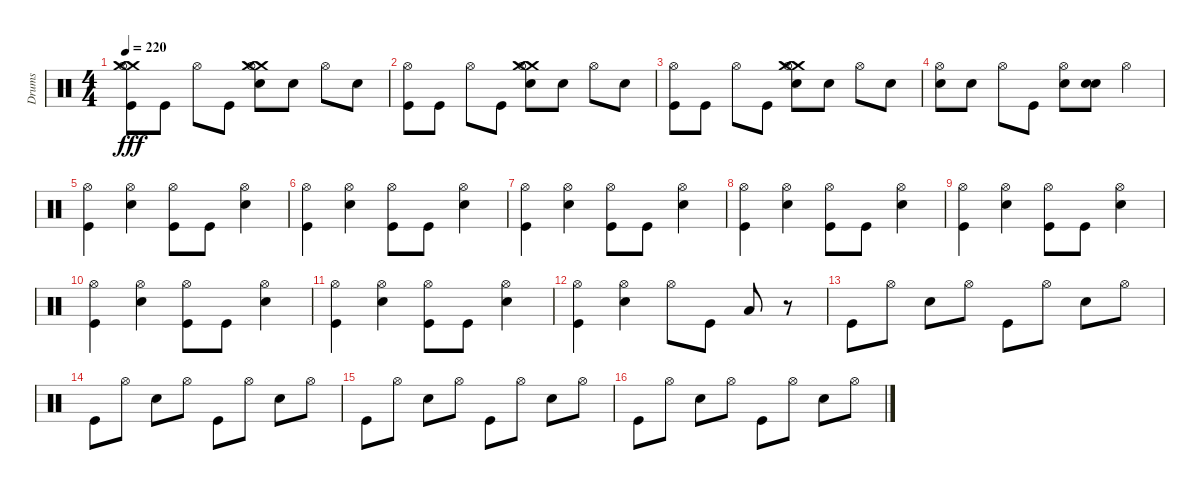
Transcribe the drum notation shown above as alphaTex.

\track ("Drums" "Drums") {instrument percussion}
\staff {score}
\articulation defaults
\ts (4 4)
\tempo 220
\clef neutral
\ks c
("Crash medium (hit)" "Crash medium (hit)" "Kick (hit)" "Hi-Hat (open)").8{dy fff} "Kick (hit)".8 "Hi-Hat (open)".8 "Kick (hit)".8 ("Crash medium (hit)" "Crash medium (hit)" "Snare (hit) 2" "Hi-Hat (open)").8 "Snare (hit) 2".8 "Hi-Hat (open)".8 "Snare (hit) 2".8 |
("Kick (hit)" "Hi-Hat (open)").8 "Kick (hit)".8 "Hi-Hat (open)".8 "Kick (hit)".8 ("Crash medium (hit)" "Crash medium (hit)" "Snare (hit) 2" "Hi-Hat (open)").8 "Snare (hit) 2".8 "Hi-Hat (open)".8 "Snare (hit) 2".8 |
("Kick (hit)" "Hi-Hat (open)").8 "Kick (hit)".8 "Hi-Hat (open)".8 "Kick (hit)".8 ("Crash medium (hit)" "Crash medium (hit)" "Snare (hit) 2" "Hi-Hat (open)").8 "Snare (hit) 2".8 "Hi-Hat (open)".8 "Snare (hit) 2".8 |
("Snare (hit) 2" "Hi-Hat (open)").8 "Snare (hit) 2".8 "Hi-Hat (open)".8 "Kick (hit)".8 ("Snare (hit) 2" "Hi-Hat (open)").8 ("Snare (hit) 2" "Snare (hit) 2").8 "Hi-Hat (open)".4 |
("Kick (hit)" "Hi-Hat (open)").4 ("Hi-Hat (open)" "Snare (hit) 2").4 ("Hi-Hat (open)" "Kick (hit)").8 "Kick (hit)".8 ("Hi-Hat (open)" "Snare (hit) 2").4 |
("Hi-Hat (open)" "Kick (hit)").4 ("Snare (hit) 2" "Hi-Hat (open)").4 ("Kick (hit)" "Hi-Hat (open)").8 "Kick (hit)".8 ("Snare (hit) 2" "Hi-Hat (open)").4 |
("Hi-Hat (open)" "Kick (hit)").4 ("Hi-Hat (open)" "Snare (hit) 2").4 ("Kick (hit)" "Hi-Hat (open)").8 "Kick (hit)".8 ("Hi-Hat (open)" "Snare (hit) 2").4 |
("Kick (hit)" "Hi-Hat (open)").4 ("Snare (hit) 2" "Hi-Hat (open)").4 ("Kick (hit)" "Hi-Hat (open)").8 "Kick (hit)".8 ("Snare (hit) 2" "Hi-Hat (open)").4 |
("Hi-Hat (open)" "Kick (hit)").4 ("Hi-Hat (open)" "Snare (hit) 2").4 ("Hi-Hat (open)" "Kick (hit)").8 "Kick (hit)".8 ("Hi-Hat (open)" "Snare (hit) 2").4 |
("Hi-Hat (open)" "Kick (hit)").4 ("Hi-Hat (open)" "Snare (hit) 2").4 ("Hi-Hat (open)" "Kick (hit)").8 "Kick (hit)".8 ("Hi-Hat (open)" "Snare (hit) 2").4 |
("Hi-Hat (open)" "Kick (hit)").4 ("Hi-Hat (open)" "Snare (hit) 2").4 ("Hi-Hat (open)" "Kick (hit)").8 "Kick (hit)".8 ("Hi-Hat (open)" "Snare (hit) 2").4 |
("Hi-Hat (open)" "Kick (hit)").4 ("Hi-Hat (open)" "Snare (hit) 2").4 "Hi-Hat (open)".8 "Kick (hit)".8 "Low Floor Tom (hit)".8 r.8 |
"Kick (hit)".8 "Hi-Hat (open)".8 "Snare (hit) 2".8 "Hi-Hat (open)".8 "Kick (hit)".8 "Hi-Hat (open)".8 "Snare (hit) 2".8 "Hi-Hat (open)".8 |
"Kick (hit)".8 "Hi-Hat (open)".8 "Snare (hit) 2".8 "Hi-Hat (open)".8 "Kick (hit)".8 "Hi-Hat (open)".8 "Snare (hit) 2".8 "Hi-Hat (open)".8 |
"Kick (hit)".8 "Hi-Hat (open)".8 "Snare (hit) 2".8 "Hi-Hat (open)".8 "Kick (hit)".8 "Hi-Hat (open)".8 "Snare (hit) 2".8 "Hi-Hat (open)".8 |
"Kick (hit)".8 "Hi-Hat (open)".8 "Snare (hit) 2".8 "Hi-Hat (open)".8 "Kick (hit)".8 "Hi-Hat (open)".8 "Snare (hit) 2".8 "Hi-Hat (open)".8
